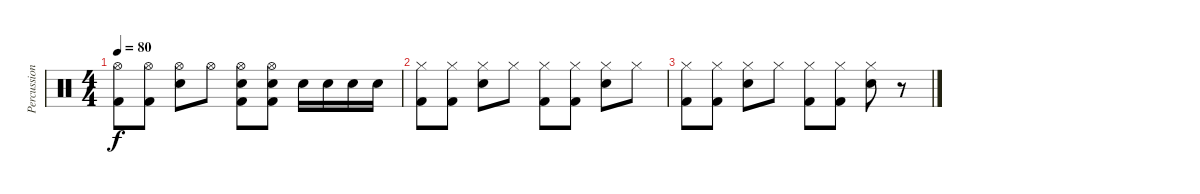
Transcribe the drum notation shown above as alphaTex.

\track ("Percussions" "Percussion") {instrument percussion}
\staff {score}
\articulation defaults
\ts (4 4)
\tempo 80
\clef neutral
\ks c
("Hi-Hat (open)" "Kick (hit) 2").8{dy f} ("Hi-Hat (open)" "Kick (hit) 2").8 ("Hi-Hat (open)" "Snare (hit) 2").8 "Hi-Hat (open)".8 ("Hi-Hat (open)" "Snare (hit) 2" "Kick (hit) 2").8 ("Hi-Hat (open)" "Snare (hit) 2" "Kick (hit) 2").8 "Snare (hit) 2".16 "Snare (hit) 2".16 "Snare (hit) 2".16 "Snare (hit) 2".16 |
("Hi-Hat (closed)" "Kick (hit) 2").8 ("Hi-Hat (closed)" "Kick (hit) 2").8 ("Hi-Hat (closed)" "Snare (hit) 2").8 "Hi-Hat (closed)".8 ("Hi-Hat (closed)" "Kick (hit) 2").8 ("Hi-Hat (closed)" "Kick (hit) 2").8 ("Hi-Hat (closed)" "Snare (hit) 2").8 "Hi-Hat (closed)".8 |
("Hi-Hat (closed)" "Kick (hit) 2").8 ("Hi-Hat (closed)" "Kick (hit) 2").8 ("Hi-Hat (closed)" "Snare (hit) 2").8 "Hi-Hat (closed)".8 ("Hi-Hat (closed)" "Kick (hit) 2").8 ("Hi-Hat (closed)" "Kick (hit) 2").8 ("Hi-Hat (closed)" "Snare (hit) 2").8 r.8
